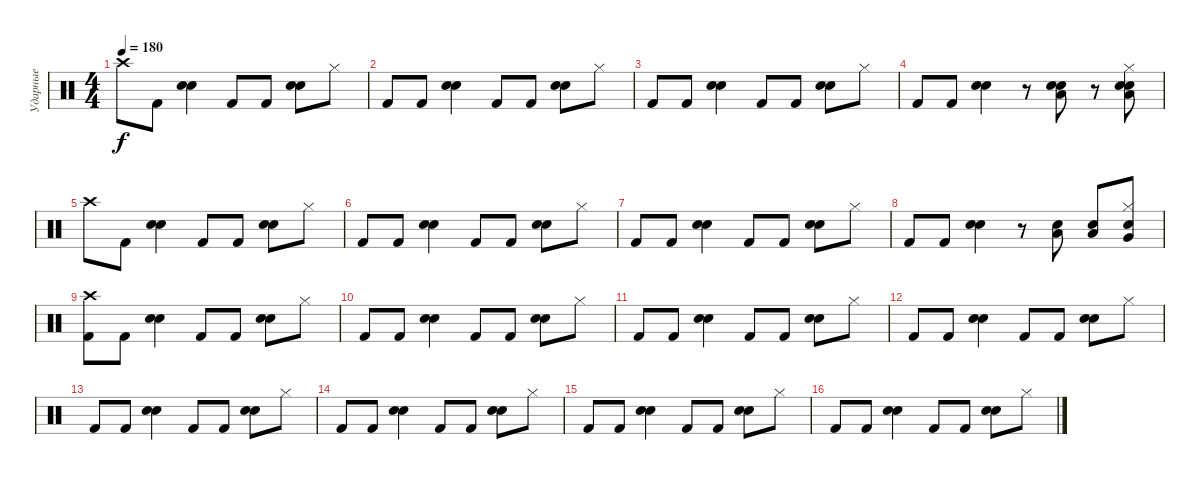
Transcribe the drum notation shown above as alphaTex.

\track ("Ударные" "Ударные") {instrument percussion}
\staff {score}
\articulation defaults
\ts (4 4)
\tempo 180
\clef neutral
\ks c "Crash high (hit)".8{dy f} "Kick (hit) 2".8
("Snare (hit) 2" "Electric Snare (hit)").4 "Kick (hit) 2".8 "Kick (hit) 2".8 ("Snare (hit) 2" "Electric Snare (hit)").8 "Hi-Hat (closed)".8 |
"Kick (hit) 2".8 "Kick (hit) 2".8 ("Snare (hit) 2" "Electric Snare (hit)").4 "Kick (hit) 2".8 "Kick (hit) 2".8 ("Snare (hit) 2" "Electric Snare (hit)").8 "Hi-Hat (closed)".8 |
"Kick (hit) 2".8 "Kick (hit) 2".8 ("Snare (hit) 2" "Electric Snare (hit)").4 "Kick (hit) 2".8 "Kick (hit) 2".8 ("Snare (hit) 2" "Electric Snare (hit)").8 "Hi-Hat (closed)".8 |
"Kick (hit) 2".8 "Kick (hit) 2".8 ("Snare (hit) 2" "Electric Snare (hit)").4 r.8 ("Snare (hit) 2" "Electric Snare (hit)" "Low Tom (hit)").8 r.8 ("Hi-Hat (closed)" "Electric Snare (hit)" "Low Tom (hit)" "Snare (hit) 2").8 |
"Crash high (hit)".8 "Kick (hit) 2".8 ("Snare (hit) 2" "Electric Snare (hit)").4 "Kick (hit) 2".8 "Kick (hit) 2".8 ("Snare (hit) 2" "Electric Snare (hit)").8 "Hi-Hat (closed)".8 |
"Kick (hit) 2".8 "Kick (hit) 2".8 ("Snare (hit) 2" "Electric Snare (hit)").4 "Kick (hit) 2".8 "Kick (hit) 2".8 ("Snare (hit) 2" "Electric Snare (hit)").8 "Hi-Hat (closed)".8 |
"Kick (hit) 2".8 "Kick (hit) 2".8 ("Snare (hit) 2" "Electric Snare (hit)").4 "Kick (hit) 2".8 "Kick (hit) 2".8 ("Snare (hit) 2" "Electric Snare (hit)").8 "Hi-Hat (closed)".8 |
"Kick (hit) 2".8 "Kick (hit) 2".8 ("Snare (hit) 2" "Electric Snare (hit)").4 r.8 ("Low Tom (hit)" "Electric Snare (hit)").8 ("Low Tom (hit)" "Electric Snare (hit)").8 ("Hi-Hat (closed)" "Very Low Tom (hit)" "Electric Snare (hit)").8 |
("Crash high (hit)" "Kick (hit) 2").8 "Kick (hit) 2".8 ("Snare (hit) 2" "Electric Snare (hit)").4 "Kick (hit) 2".8 "Kick (hit) 2".8 ("Snare (hit) 2" "Electric Snare (hit)").8 "Hi-Hat (closed)".8 |
"Kick (hit) 2".8 "Kick (hit) 2".8 ("Snare (hit) 2" "Electric Snare (hit)").4 "Kick (hit) 2".8 "Kick (hit) 2".8 ("Snare (hit) 2" "Electric Snare (hit)").8 "Hi-Hat (closed)".8 |
"Kick (hit) 2".8 "Kick (hit) 2".8 ("Snare (hit) 2" "Electric Snare (hit)").4 "Kick (hit) 2".8 "Kick (hit) 2".8 ("Snare (hit) 2" "Electric Snare (hit)").8 "Hi-Hat (closed)".8 |
"Kick (hit) 2".8 "Kick (hit) 2".8 ("Snare (hit) 2" "Electric Snare (hit)").4 "Kick (hit) 2".8 "Kick (hit) 2".8 ("Snare (hit) 2" "Electric Snare (hit)").8 "Hi-Hat (closed)".8 |
"Kick (hit) 2".8 "Kick (hit) 2".8 ("Snare (hit) 2" "Electric Snare (hit)").4 "Kick (hit) 2".8 "Kick (hit) 2".8 ("Snare (hit) 2" "Electric Snare (hit)").8 "Hi-Hat (closed)".8 |
"Kick (hit) 2".8 "Kick (hit) 2".8 ("Snare (hit) 2" "Electric Snare (hit)").4 "Kick (hit) 2".8 "Kick (hit) 2".8 ("Snare (hit) 2" "Electric Snare (hit)").8 "Hi-Hat (closed)".8 |
"Kick (hit) 2".8 "Kick (hit) 2".8 ("Snare (hit) 2" "Electric Snare (hit)").4 "Kick (hit) 2".8 "Kick (hit) 2".8 ("Snare (hit) 2" "Electric Snare (hit)").8 "Hi-Hat (closed)".8 |
"Kick (hit) 2".8 "Kick (hit) 2".8 ("Snare (hit) 2" "Electric Snare (hit)").4 "Kick (hit) 2".8 "Kick (hit) 2".8 ("Snare (hit) 2" "Electric Snare (hit)").8 "Hi-Hat (closed)".8
